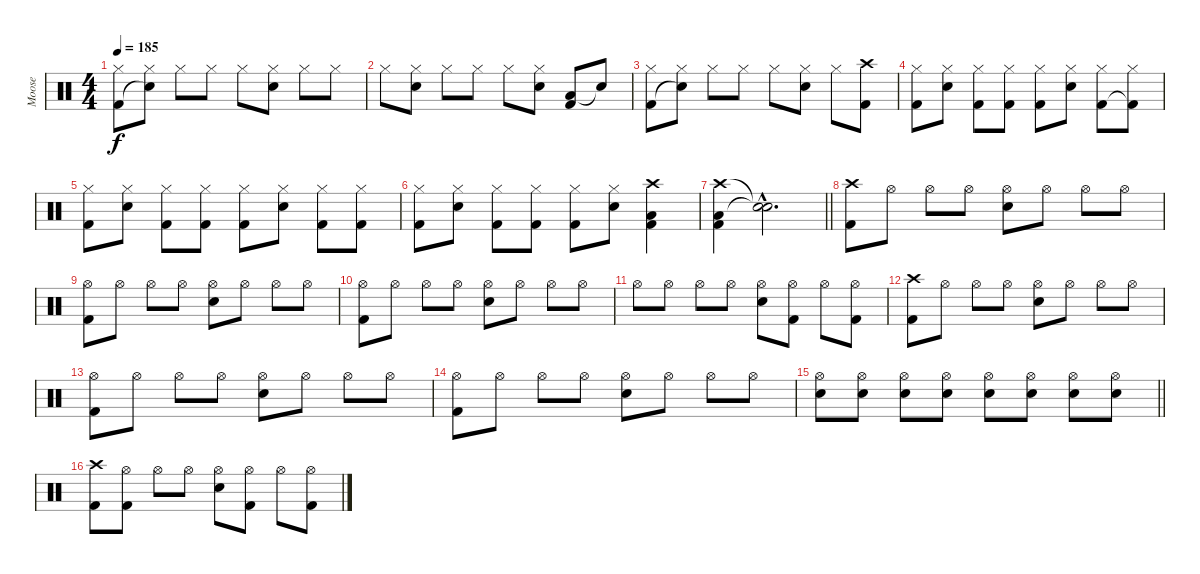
\track ("Moose" "Moose") {instrument percussion}
\staff {score}
\articulation defaults
\ts (4 4)
\tempo 185
\clef neutral
\ks c
("Hi-Hat (closed)" "Kick (hit) 2").8{dy f} ("Hi-Hat (closed)" "Snare (hit)"{t}).8 "Hi-Hat (closed)".8 "Hi-Hat (closed)".8 "Hi-Hat (closed)".8 ("Hi-Hat (closed)" "Snare (hit) 2").8 "Hi-Hat (closed)".8 "Hi-Hat (closed)".8 |
"Hi-Hat (closed)".8 ("Hi-Hat (closed)" "Snare (hit) 2").8 "Hi-Hat (closed)".8 "Hi-Hat (closed)".8 "Hi-Hat (closed)".8 ("Hi-Hat (closed)" "Snare (hit) 2").8 ("Low Tom (hit)" "Kick (hit) 2").8 "Snare (hit)"{t}.8 |
("Hi-Hat (closed)" "Kick (hit) 2").8 ("Hi-Hat (closed)" "Snare (hit)"{t}).8 "Hi-Hat (closed)".8 "Hi-Hat (closed)".8 "Hi-Hat (closed)".8 ("Hi-Hat (closed)" "Snare (hit) 2").8 "Hi-Hat (closed)".8 ("Crash high (hit)" "Kick (hit) 2").8 |
("Hi-Hat (closed)" "Kick (hit) 2").8 ("Hi-Hat (closed)" "Snare (hit) 2").8 ("Hi-Hat (closed)" "Kick (hit) 2").8 ("Hi-Hat (closed)" "Kick (hit) 2").8 ("Hi-Hat (closed)" "Kick (hit) 2").8 ("Hi-Hat (closed)" "Snare (hit) 2").8 ("Hi-Hat (closed)" "Kick (hit) 2").8 ("Hi-Hat (closed)" "Kick (hit) 2"{t}).8 |
("Hi-Hat (closed)" "Kick (hit) 2").8 ("Hi-Hat (closed)" "Snare (hit) 2").8 ("Hi-Hat (closed)" "Kick (hit) 2").8 ("Hi-Hat (closed)" "Kick (hit) 2").8 ("Hi-Hat (closed)" "Kick (hit) 2").8 ("Hi-Hat (closed)" "Snare (hit) 2").8 ("Hi-Hat (closed)" "Kick (hit) 2").8 ("Hi-Hat (closed)" "Kick (hit) 2").8 |
("Hi-Hat (closed)" "Kick (hit) 2").8 ("Hi-Hat (closed)" "Snare (hit) 2").8 ("Hi-Hat (closed)" "Kick (hit) 2").8 ("Hi-Hat (closed)" "Kick (hit) 2").8 ("Hi-Hat (closed)" "Kick (hit) 2").8 ("Hi-Hat (closed)" "Snare (hit) 2").8 ("Crash high (hit)" "Low Tom (hit)" "Kick (hit) 2").4 |
\barLineRight lightlight
("Crash high (hit)" "Low Tom (hit)" "Kick (hit) 2").4 ("Snare (hit)"{hac t} "Snare (hit)"{hac t}).2{d} |
("Crash high (hit)" "Kick (hit) 2").8 "Hi-Hat (open)".8 "Hi-Hat (open)".8 "Hi-Hat (open)".8 ("Hi-Hat (open)" "Snare (hit) 2").8 "Hi-Hat (open)".8 "Hi-Hat (open)".8 "Hi-Hat (open)".8 |
("Hi-Hat (open)" "Kick (hit) 2").8 "Hi-Hat (open)".8 "Hi-Hat (open)".8 "Hi-Hat (open)".8 ("Hi-Hat (open)" "Snare (hit) 2").8 "Hi-Hat (open)".8 "Hi-Hat (open)".8 "Hi-Hat (open)".8 |
("Hi-Hat (open)" "Kick (hit) 2").8 "Hi-Hat (open)".8 "Hi-Hat (open)".8 "Hi-Hat (open)".8 ("Hi-Hat (open)" "Snare (hit) 2").8 "Hi-Hat (open)".8 "Hi-Hat (open)".8 "Hi-Hat (open)".8 |
"Hi-Hat (open)".8 "Hi-Hat (open)".8 "Hi-Hat (open)".8 "Hi-Hat (open)".8 ("Hi-Hat (open)" "Snare (hit) 2").8 ("Hi-Hat (open)" "Kick (hit) 2").8 "Hi-Hat (open)".8 ("Hi-Hat (open)" "Kick (hit) 2").8 |
("Crash high (hit)" "Kick (hit) 2").8 "Hi-Hat (open)".8 "Hi-Hat (open)".8 "Hi-Hat (open)".8 ("Hi-Hat (open)" "Snare (hit) 2").8 "Hi-Hat (open)".8 "Hi-Hat (open)".8 "Hi-Hat (open)".8 |
("Hi-Hat (open)" "Kick (hit) 2").8 "Hi-Hat (open)".8 "Hi-Hat (open)".8 "Hi-Hat (open)".8 ("Hi-Hat (open)" "Snare (hit) 2").8 "Hi-Hat (open)".8 "Hi-Hat (open)".8 "Hi-Hat (open)".8 |
("Hi-Hat (open)" "Kick (hit) 2").8 "Hi-Hat (open)".8 "Hi-Hat (open)".8 "Hi-Hat (open)".8 ("Hi-Hat (open)" "Snare (hit) 2").8 "Hi-Hat (open)".8 "Hi-Hat (open)".8 "Hi-Hat (open)".8 |
\barLineRight lightlight
("Hi-Hat (open)" "Snare (hit) 2").8 ("Hi-Hat (open)" "Snare (hit) 2").8 ("Hi-Hat (open)" "Snare (hit) 2").8 ("Hi-Hat (open)" "Snare (hit) 2").8 ("Hi-Hat (open)" "Snare (hit) 2").8 ("Hi-Hat (open)" "Snare (hit) 2").8 ("Hi-Hat (open)" "Snare (hit) 2").8 ("Hi-Hat (open)" "Snare (hit) 2").8 |
("Crash high (hit)" "Kick (hit) 2").8 ("Hi-Hat (open)" "Kick (hit) 2").8 "Hi-Hat (open)".8 "Hi-Hat (open)".8 ("Hi-Hat (open)" "Snare (hit) 2").8 ("Hi-Hat (open)" "Kick (hit) 2").8 "Hi-Hat (open)".8 ("Hi-Hat (open)" "Kick (hit) 2").8
